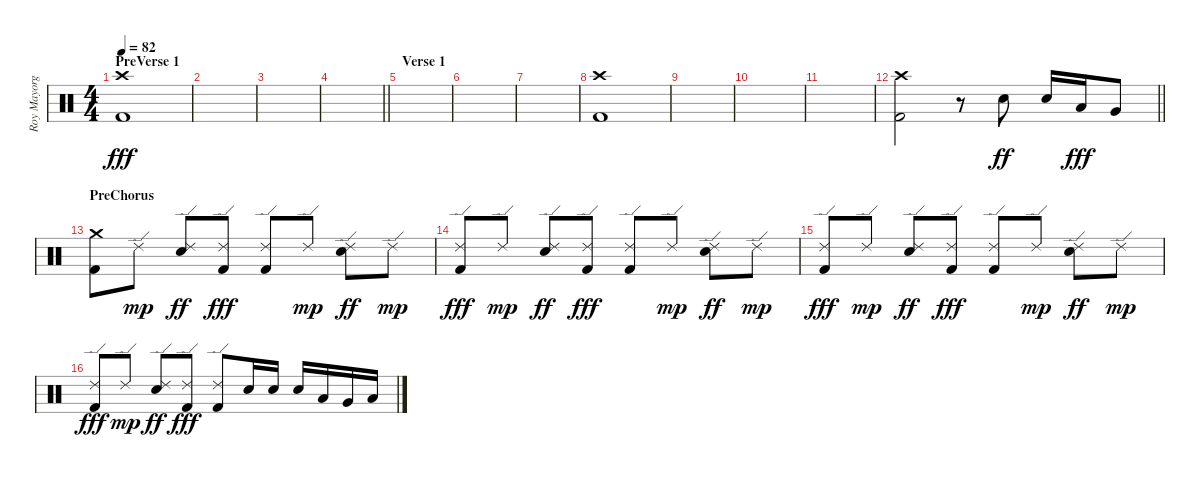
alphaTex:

\track ("Roy Mayorga" "Roy Mayorg") {instrument percussion}
\staff {score}
\articulation defaults
\ts (4 4)
\section ("" "PreVerse 1")
\tempo 82
\clef neutral
\ks c
("Crash high (hit)" "Kick (hit) 2").1{dy fff} |
|
|
\barLineRight lightlight
|
\section ("" "Verse 1")
|
|
|
("Crash high (hit)" "Kick (hit) 2").1 |
|
|
|
\barLineRight lightlight
("Crash high (hit)" "Kick (hit) 2").2 r.8 "Electric Snare (hit)".8{dy ff} "Electric Snare (hit)".16 "Low Tom (hit)".16{dy fff} "Very Low Tom (hit)".8 |
\section ("" "PreChorus")
("Crash medium (hit)" "Kick (hit) 2").8 "Ride (edge) 2".8{dy mp} ("Ride (edge) 2" "Electric Snare (hit)").8{dy ff} ("Ride (edge) 2" "Kick (hit) 2").8{dy fff} ("Ride (edge) 2" "Kick (hit) 2").8 "Ride (edge) 2".8{dy mp} ("Ride (edge) 2" "Electric Snare (hit)").8{dy ff} "Ride (edge) 2".8{dy mp} |
("Ride (edge) 2" "Kick (hit) 2").8{dy fff} "Ride (edge) 2".8{dy mp} ("Ride (edge) 2" "Electric Snare (hit)").8{dy ff} ("Ride (edge) 2" "Kick (hit) 2").8{dy fff} ("Ride (edge) 2" "Kick (hit) 2").8 "Ride (edge) 2".8{dy mp} ("Ride (edge) 2" "Electric Snare (hit)").8{dy ff} "Ride (edge) 2".8{dy mp} |
("Ride (edge) 2" "Kick (hit) 2").8{dy fff} "Ride (edge) 2".8{dy mp} ("Ride (edge) 2" "Electric Snare (hit)").8{dy ff} ("Ride (edge) 2" "Kick (hit) 2").8{dy fff} ("Ride (edge) 2" "Kick (hit) 2").8 "Ride (edge) 2".8{dy mp} ("Ride (edge) 2" "Electric Snare (hit)").8{dy ff} "Ride (edge) 2".8{dy mp} |
("Ride (edge) 2" "Kick (hit) 2").8{dy fff} "Ride (edge) 2".8{dy mp} ("Ride (edge) 2" "Electric Snare (hit)").8{dy ff} ("Ride (edge) 2" "Kick (hit) 2").8{dy fff} ("Ride (edge) 2" "Kick (hit) 2").8 "Electric Snare (hit)".16 "Electric Snare (hit)".16 "Electric Snare (hit)".16 "Low Tom (hit)".16 "Very Low Tom (hit)".16 "Low Floor Tom (hit)".16
